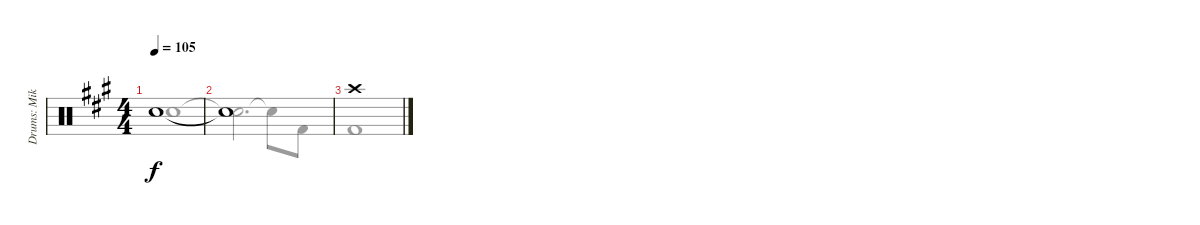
\track ("Drums: Mikkey" "Drums: Mik") {instrument percussion}
\staff {score}
\articulation defaults
\voice
\ts (4 4)
\tempo 105
\clef neutral
\ks a "Snare (hit)"{t}.1{dy f}
|
"Snare (hit)"{t}.1 |
"Crash high (hit)".1
\voice
\clef neutral
\ottava regular
\simile none
\ks a "Snare (hit)"{t}.1{dy f}
|
"Snare (hit)"{t}.2{d} "Snare (hit)"{t}.8 "Kick (hit) 2".8 |
"Kick (hit) 2".1
